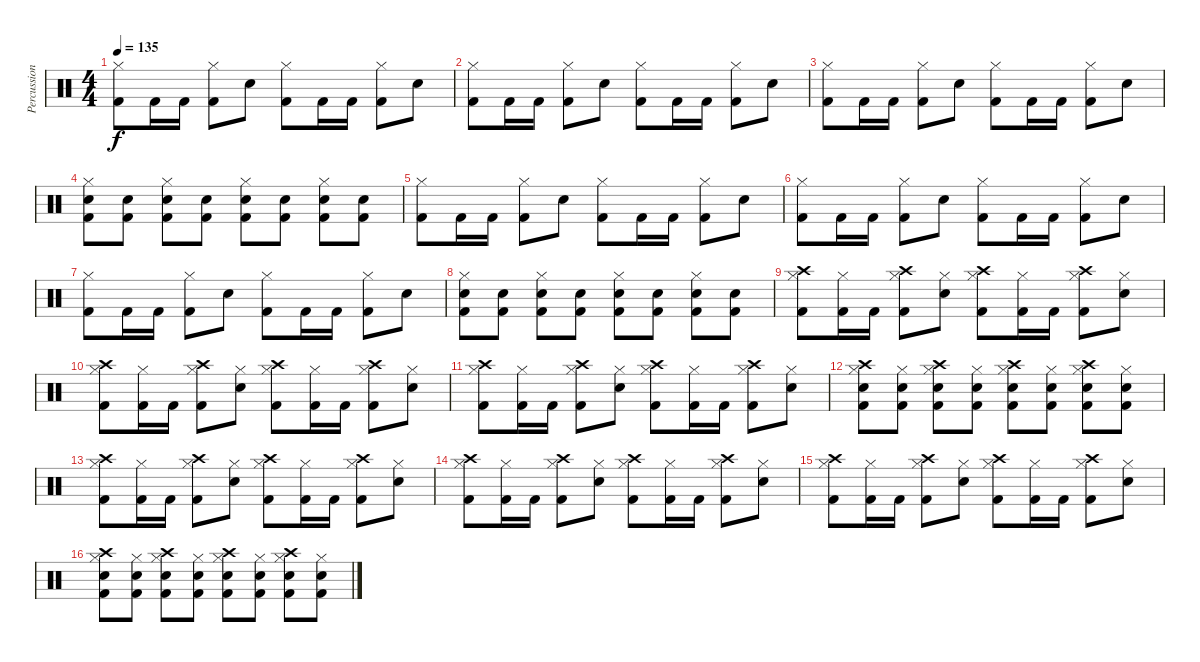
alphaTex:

\track ("Percussions" "Percussion") {instrument percussion}
\staff {score}
\articulation defaults
\ts (4 4)
\tempo 135
\clef neutral
\ks c
("Hi-Hat (closed)" "Kick (hit) 2").8{dy f} "Kick (hit) 2".16 "Kick (hit) 2".16 ("Hi-Hat (closed)" "Kick (hit) 2").8 "Snare (hit) 2".8 ("Hi-Hat (closed)" "Kick (hit) 2").8 "Kick (hit) 2".16 "Kick (hit) 2".16 ("Hi-Hat (closed)" "Kick (hit) 2").8 "Snare (hit) 2".8 |
("Hi-Hat (closed)" "Kick (hit) 2").8 "Kick (hit) 2".16 "Kick (hit) 2".16 ("Hi-Hat (closed)" "Kick (hit) 2").8 "Snare (hit) 2".8 ("Hi-Hat (closed)" "Kick (hit) 2").8 "Kick (hit) 2".16 "Kick (hit) 2".16 ("Hi-Hat (closed)" "Kick (hit) 2").8 "Snare (hit) 2".8 |
("Hi-Hat (closed)" "Kick (hit) 2").8 "Kick (hit) 2".16 "Kick (hit) 2".16 ("Hi-Hat (closed)" "Kick (hit) 2").8 "Snare (hit) 2".8 ("Hi-Hat (closed)" "Kick (hit) 2").8 "Kick (hit) 2".16 "Kick (hit) 2".16 ("Hi-Hat (closed)" "Kick (hit) 2").8 "Snare (hit) 2".8 |
("Hi-Hat (closed)" "Kick (hit) 2" "Snare (hit) 2").8 ("Kick (hit) 2" "Snare (hit) 2").8 ("Hi-Hat (closed)" "Kick (hit) 2" "Snare (hit) 2").8 ("Kick (hit) 2" "Snare (hit) 2").8 ("Hi-Hat (closed)" "Kick (hit) 2" "Snare (hit) 2").8 ("Kick (hit) 2" "Snare (hit) 2").8 ("Hi-Hat (closed)" "Kick (hit) 2" "Snare (hit) 2").8 ("Kick (hit) 2" "Snare (hit) 2").8 |
("Hi-Hat (closed)" "Kick (hit) 2").8 "Kick (hit) 2".16 "Kick (hit) 2".16 ("Hi-Hat (closed)" "Kick (hit) 2").8 "Snare (hit) 2".8 ("Hi-Hat (closed)" "Kick (hit) 2").8 "Kick (hit) 2".16 "Kick (hit) 2".16 ("Hi-Hat (closed)" "Kick (hit) 2").8 "Snare (hit) 2".8 |
("Hi-Hat (closed)" "Kick (hit) 2").8 "Kick (hit) 2".16 "Kick (hit) 2".16 ("Hi-Hat (closed)" "Kick (hit) 2").8 "Snare (hit) 2".8 ("Hi-Hat (closed)" "Kick (hit) 2").8 "Kick (hit) 2".16 "Kick (hit) 2".16 ("Hi-Hat (closed)" "Kick (hit) 2").8 "Snare (hit) 2".8 |
("Hi-Hat (closed)" "Kick (hit) 2").8 "Kick (hit) 2".16 "Kick (hit) 2".16 ("Hi-Hat (closed)" "Kick (hit) 2").8 "Snare (hit) 2".8 ("Hi-Hat (closed)" "Kick (hit) 2").8 "Kick (hit) 2".16 "Kick (hit) 2".16 ("Hi-Hat (closed)" "Kick (hit) 2").8 "Snare (hit) 2".8 |
("Hi-Hat (closed)" "Kick (hit) 2" "Snare (hit) 2").8 ("Kick (hit) 2" "Snare (hit) 2").8 ("Hi-Hat (closed)" "Kick (hit) 2" "Snare (hit) 2").8 ("Kick (hit) 2" "Snare (hit) 2").8 ("Hi-Hat (closed)" "Kick (hit) 2" "Snare (hit) 2").8 ("Kick (hit) 2" "Snare (hit) 2").8 ("Hi-Hat (closed)" "Kick (hit) 2" "Snare (hit) 2").8 ("Kick (hit) 2" "Snare (hit) 2").8 |
("Crash high (hit)" "Hi-Hat (closed)" "Kick (hit) 2").8 ("Hi-Hat (closed)" "Kick (hit) 2").16 "Kick (hit) 2".16 ("Crash high (hit)" "Hi-Hat (closed)" "Kick (hit) 2").8 ("Hi-Hat (closed)" "Snare (hit) 2").8 ("Crash high (hit)" "Hi-Hat (closed)" "Kick (hit) 2").8 ("Hi-Hat (closed)" "Kick (hit) 2").16 "Kick (hit) 2".16 ("Crash high (hit)" "Hi-Hat (closed)" "Kick (hit) 2").8 ("Hi-Hat (closed)" "Snare (hit) 2").8 |
("Crash high (hit)" "Hi-Hat (closed)" "Kick (hit) 2").8 ("Hi-Hat (closed)" "Kick (hit) 2").16 "Kick (hit) 2".16 ("Crash high (hit)" "Hi-Hat (closed)" "Kick (hit) 2").8 ("Hi-Hat (closed)" "Snare (hit) 2").8 ("Crash high (hit)" "Hi-Hat (closed)" "Kick (hit) 2").8 ("Hi-Hat (closed)" "Kick (hit) 2").16 "Kick (hit) 2".16 ("Crash high (hit)" "Hi-Hat (closed)" "Kick (hit) 2").8 ("Hi-Hat (closed)" "Snare (hit) 2").8 |
("Crash high (hit)" "Hi-Hat (closed)" "Kick (hit) 2").8 ("Hi-Hat (closed)" "Kick (hit) 2").16 "Kick (hit) 2".16 ("Crash high (hit)" "Hi-Hat (closed)" "Kick (hit) 2").8 ("Hi-Hat (closed)" "Snare (hit) 2").8 ("Crash high (hit)" "Hi-Hat (closed)" "Kick (hit) 2").8 ("Hi-Hat (closed)" "Kick (hit) 2").16 "Kick (hit) 2".16 ("Crash high (hit)" "Hi-Hat (closed)" "Kick (hit) 2").8 ("Hi-Hat (closed)" "Snare (hit) 2").8 |
("Crash high (hit)" "Hi-Hat (closed)" "Kick (hit) 2" "Snare (hit) 2").8 ("Hi-Hat (closed)" "Kick (hit) 2" "Snare (hit) 2").8 ("Crash high (hit)" "Hi-Hat (closed)" "Kick (hit) 2" "Snare (hit) 2").8 ("Hi-Hat (closed)" "Kick (hit) 2" "Snare (hit) 2").8 ("Crash high (hit)" "Hi-Hat (closed)" "Kick (hit) 2" "Snare (hit) 2").8 ("Hi-Hat (closed)" "Kick (hit) 2" "Snare (hit) 2").8 ("Crash high (hit)" "Hi-Hat (closed)" "Kick (hit) 2" "Snare (hit) 2").8 ("Hi-Hat (closed)" "Kick (hit) 2" "Snare (hit) 2").8 |
("Crash high (hit)" "Hi-Hat (closed)" "Kick (hit) 2").8 ("Hi-Hat (closed)" "Kick (hit) 2").16 "Kick (hit) 2".16 ("Crash high (hit)" "Hi-Hat (closed)" "Kick (hit) 2").8 ("Hi-Hat (closed)" "Snare (hit) 2").8 ("Crash high (hit)" "Hi-Hat (closed)" "Kick (hit) 2").8 ("Hi-Hat (closed)" "Kick (hit) 2").16 "Kick (hit) 2".16 ("Crash high (hit)" "Hi-Hat (closed)" "Kick (hit) 2").8 ("Hi-Hat (closed)" "Snare (hit) 2").8 |
("Crash high (hit)" "Hi-Hat (closed)" "Kick (hit) 2").8 ("Hi-Hat (closed)" "Kick (hit) 2").16 "Kick (hit) 2".16 ("Crash high (hit)" "Hi-Hat (closed)" "Kick (hit) 2").8 ("Hi-Hat (closed)" "Snare (hit) 2").8 ("Crash high (hit)" "Hi-Hat (closed)" "Kick (hit) 2").8 ("Hi-Hat (closed)" "Kick (hit) 2").16 "Kick (hit) 2".16 ("Crash high (hit)" "Hi-Hat (closed)" "Kick (hit) 2").8 ("Hi-Hat (closed)" "Snare (hit) 2").8 |
("Crash high (hit)" "Hi-Hat (closed)" "Kick (hit) 2").8 ("Hi-Hat (closed)" "Kick (hit) 2").16 "Kick (hit) 2".16 ("Crash high (hit)" "Hi-Hat (closed)" "Kick (hit) 2").8 ("Hi-Hat (closed)" "Snare (hit) 2").8 ("Crash high (hit)" "Hi-Hat (closed)" "Kick (hit) 2").8 ("Hi-Hat (closed)" "Kick (hit) 2").16 "Kick (hit) 2".16 ("Crash high (hit)" "Hi-Hat (closed)" "Kick (hit) 2").8 ("Hi-Hat (closed)" "Snare (hit) 2").8 |
("Crash high (hit)" "Hi-Hat (closed)" "Kick (hit) 2" "Snare (hit) 2").8 ("Hi-Hat (closed)" "Kick (hit) 2" "Snare (hit) 2").8 ("Crash high (hit)" "Hi-Hat (closed)" "Kick (hit) 2" "Snare (hit) 2").8 ("Hi-Hat (closed)" "Kick (hit) 2" "Snare (hit) 2").8 ("Crash high (hit)" "Hi-Hat (closed)" "Kick (hit) 2" "Snare (hit) 2").8 ("Hi-Hat (closed)" "Kick (hit) 2" "Snare (hit) 2").8 ("Crash high (hit)" "Hi-Hat (closed)" "Kick (hit) 2" "Snare (hit) 2").8 ("Hi-Hat (closed)" "Kick (hit) 2" "Snare (hit) 2").8
